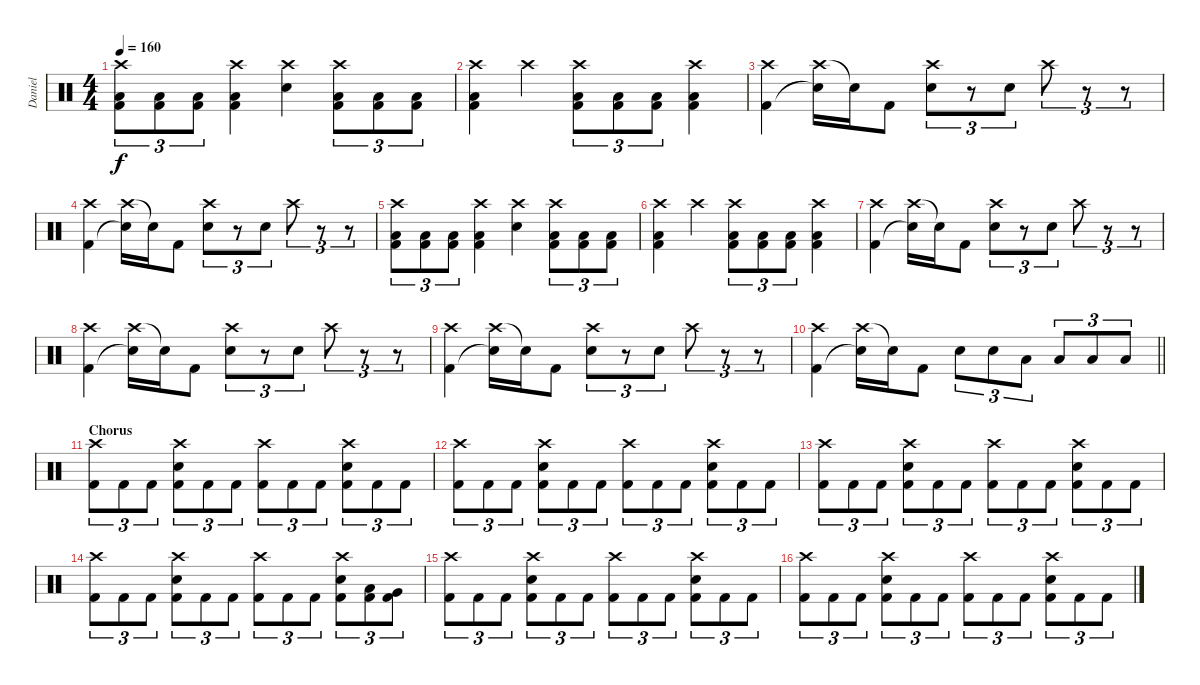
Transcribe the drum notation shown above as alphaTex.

\track ("Daniel" "Daniel") {instrument percussion}
\staff {score}
\articulation defaults
\ts (4 4)
\tempo 160
\clef neutral
\ks c
("Crash high (hit)" "Low Floor Tom (hit)" "Kick (hit) 2").8{tu (3 2) dy f} ("Low Floor Tom (hit)" "Kick (hit) 2").8{tu (3 2)} ("Low Floor Tom (hit)" "Kick (hit) 2").8{tu (3 2)} ("Crash high (hit)" "Low Floor Tom (hit)" "Kick (hit) 2").4 ("Crash high (hit)" "Electric Snare (hit)").4 ("Crash high (hit)" "Low Floor Tom (hit)" "Kick (hit) 2").8{tu (3 2)} ("Low Floor Tom (hit)" "Kick (hit) 2").8{tu (3 2)} ("Low Floor Tom (hit)" "Kick (hit) 2").8{tu (3 2)} |
("Crash high (hit)" "Low Floor Tom (hit)" "Kick (hit) 2").4 "Crash high (hit)".4 ("Crash high (hit)" "Low Floor Tom (hit)" "Kick (hit) 2").8{tu (3 2)} ("Low Floor Tom (hit)" "Kick (hit) 2").8{tu (3 2)} ("Low Floor Tom (hit)" "Kick (hit) 2").8{tu (3 2)} ("Crash high (hit)" "Low Floor Tom (hit)" "Kick (hit) 2").4 |
("Crash high (hit)" "Kick (hit) 2").4 ("Crash high (hit)" "Snare (hit)"{t}).16 "Snare (hit)"{t}.16 "Kick (hit) 2".8 ("Crash high (hit)" "Electric Snare (hit)").8{tu (3 2)} r.8{tu (3 2)} "Electric Snare (hit)".8{tu (3 2)} "Crash high (hit)".8{tu (3 2)} r.8{tu (3 2)} r.8{tu (3 2)} |
("Crash high (hit)" "Kick (hit) 2").4 ("Crash high (hit)" "Snare (hit)"{t}).16 "Snare (hit)"{t}.16 "Kick (hit) 2".8 ("Crash high (hit)" "Electric Snare (hit)").8{tu (3 2)} r.8{tu (3 2)} "Electric Snare (hit)".8{tu (3 2)} "Crash high (hit)".8{tu (3 2)} r.8{tu (3 2)} r.8{tu (3 2)} |
("Crash high (hit)" "Low Floor Tom (hit)" "Kick (hit) 2").8{tu (3 2)} ("Low Floor Tom (hit)" "Kick (hit) 2").8{tu (3 2)} ("Low Floor Tom (hit)" "Kick (hit) 2").8{tu (3 2)} ("Crash high (hit)" "Low Floor Tom (hit)" "Kick (hit) 2").4 ("Crash high (hit)" "Electric Snare (hit)").4 ("Crash high (hit)" "Low Floor Tom (hit)" "Kick (hit) 2").8{tu (3 2)} ("Low Floor Tom (hit)" "Kick (hit) 2").8{tu (3 2)} ("Low Floor Tom (hit)" "Kick (hit) 2").8{tu (3 2)} |
("Crash high (hit)" "Low Floor Tom (hit)" "Kick (hit) 2").4 "Crash high (hit)".4 ("Crash high (hit)" "Low Floor Tom (hit)" "Kick (hit) 2").8{tu (3 2)} ("Low Floor Tom (hit)" "Kick (hit) 2").8{tu (3 2)} ("Low Floor Tom (hit)" "Kick (hit) 2").8{tu (3 2)} ("Crash high (hit)" "Low Floor Tom (hit)" "Kick (hit) 2").4 |
("Crash high (hit)" "Kick (hit) 2").4 ("Crash high (hit)" "Snare (hit)"{t}).16 "Snare (hit)"{t}.16 "Kick (hit) 2".8 ("Crash high (hit)" "Electric Snare (hit)").8{tu (3 2)} r.8{tu (3 2)} "Electric Snare (hit)".8{tu (3 2)} "Crash high (hit)".8{tu (3 2)} r.8{tu (3 2)} r.8{tu (3 2)} |
("Crash high (hit)" "Kick (hit) 2").4 ("Crash high (hit)" "Snare (hit)"{t}).16 "Snare (hit)"{t}.16 "Kick (hit) 2".8 ("Crash high (hit)" "Electric Snare (hit)").8{tu (3 2)} r.8{tu (3 2)} "Electric Snare (hit)".8{tu (3 2)} "Crash high (hit)".8{tu (3 2)} r.8{tu (3 2)} r.8{tu (3 2)} |
("Crash high (hit)" "Kick (hit) 2").4 ("Crash high (hit)" "Snare (hit)"{t}).16 "Snare (hit)"{t}.16 "Kick (hit) 2".8 ("Crash high (hit)" "Electric Snare (hit)").8{tu (3 2)} r.8{tu (3 2)} "Electric Snare (hit)".8{tu (3 2)} "Crash high (hit)".8{tu (3 2)} r.8{tu (3 2)} r.8{tu (3 2)} |
\barLineRight lightlight
("Crash high (hit)" "Kick (hit) 2").4 ("Crash high (hit)" "Snare (hit)"{t}).16 "Snare (hit)"{t}.16 "Kick (hit) 2".8 "Electric Snare (hit)".8{tu (3 2)} "Electric Snare (hit)".8{tu (3 2)} "Low Tom (hit)".8{tu (3 2)} "Low Tom (hit)".8{tu (3 2)} "Low Floor Tom (hit)".8{tu (3 2)} "Low Floor Tom (hit)".8{tu (3 2)} |
\section ("" "Chorus ")
("Crash high (hit)" "Kick (hit) 2").8{tu (3 2)} "Kick (hit) 2".8{tu (3 2)} "Kick (hit) 2".8{tu (3 2)} ("Crash high (hit)" "Electric Snare (hit)" "Kick (hit) 2").8{tu (3 2)} "Kick (hit) 2".8{tu (3 2)} "Kick (hit) 2".8{tu (3 2)} ("Crash high (hit)" "Kick (hit) 2").8{tu (3 2)} "Kick (hit) 2".8{tu (3 2)} "Kick (hit) 2".8{tu (3 2)} ("Crash high (hit)" "Electric Snare (hit)" "Kick (hit) 2").8{tu (3 2)} "Kick (hit) 2".8{tu (3 2)} "Kick (hit) 2".8{tu (3 2)} |
("Crash high (hit)" "Kick (hit) 2").8{tu (3 2)} "Kick (hit) 2".8{tu (3 2)} "Kick (hit) 2".8{tu (3 2)} ("Crash high (hit)" "Electric Snare (hit)" "Kick (hit) 2").8{tu (3 2)} "Kick (hit) 2".8{tu (3 2)} "Kick (hit) 2".8{tu (3 2)} ("Crash high (hit)" "Kick (hit) 2").8{tu (3 2)} "Kick (hit) 2".8{tu (3 2)} "Kick (hit) 2".8{tu (3 2)} ("Crash high (hit)" "Electric Snare (hit)" "Kick (hit) 2").8{tu (3 2)} "Kick (hit) 2".8{tu (3 2)} "Kick (hit) 2".8{tu (3 2)} |
("Crash high (hit)" "Kick (hit) 2").8{tu (3 2)} "Kick (hit) 2".8{tu (3 2)} "Kick (hit) 2".8{tu (3 2)} ("Crash high (hit)" "Electric Snare (hit)" "Kick (hit) 2").8{tu (3 2)} "Kick (hit) 2".8{tu (3 2)} "Kick (hit) 2".8{tu (3 2)} ("Crash high (hit)" "Kick (hit) 2").8{tu (3 2)} "Kick (hit) 2".8{tu (3 2)} "Kick (hit) 2".8{tu (3 2)} ("Crash high (hit)" "Electric Snare (hit)" "Kick (hit) 2").8{tu (3 2)} "Kick (hit) 2".8{tu (3 2)} "Kick (hit) 2".8{tu (3 2)} |
("Crash high (hit)" "Kick (hit) 2").8{tu (3 2)} "Kick (hit) 2".8{tu (3 2)} "Kick (hit) 2".8{tu (3 2)} ("Crash high (hit)" "Electric Snare (hit)" "Kick (hit) 2").8{tu (3 2)} "Kick (hit) 2".8{tu (3 2)} "Kick (hit) 2".8{tu (3 2)} ("Crash high (hit)" "Kick (hit) 2").8{tu (3 2)} "Kick (hit) 2".8{tu (3 2)} "Kick (hit) 2".8{tu (3 2)} ("Crash high (hit)" "Electric Snare (hit)" "Kick (hit) 2").8{tu (3 2)} ("Low Tom (hit)" "Kick (hit) 2").8{tu (3 2)} ("Very Low Tom (hit)" "Kick (hit) 2").8{tu (3 2)} |
("Crash high (hit)" "Kick (hit) 2").8{tu (3 2)} "Kick (hit) 2".8{tu (3 2)} "Kick (hit) 2".8{tu (3 2)} ("Crash high (hit)" "Electric Snare (hit)" "Kick (hit) 2").8{tu (3 2)} "Kick (hit) 2".8{tu (3 2)} "Kick (hit) 2".8{tu (3 2)} ("Crash high (hit)" "Kick (hit) 2").8{tu (3 2)} "Kick (hit) 2".8{tu (3 2)} "Kick (hit) 2".8{tu (3 2)} ("Crash high (hit)" "Electric Snare (hit)" "Kick (hit) 2").8{tu (3 2)} "Kick (hit) 2".8{tu (3 2)} "Kick (hit) 2".8{tu (3 2)} |
("Crash high (hit)" "Kick (hit) 2").8{tu (3 2)} "Kick (hit) 2".8{tu (3 2)} "Kick (hit) 2".8{tu (3 2)} ("Crash high (hit)" "Electric Snare (hit)" "Kick (hit) 2").8{tu (3 2)} "Kick (hit) 2".8{tu (3 2)} "Kick (hit) 2".8{tu (3 2)} ("Crash high (hit)" "Kick (hit) 2").8{tu (3 2)} "Kick (hit) 2".8{tu (3 2)} "Kick (hit) 2".8{tu (3 2)} ("Crash high (hit)" "Electric Snare (hit)" "Kick (hit) 2").8{tu (3 2)} "Kick (hit) 2".8{tu (3 2)} "Kick (hit) 2".8{tu (3 2)}
